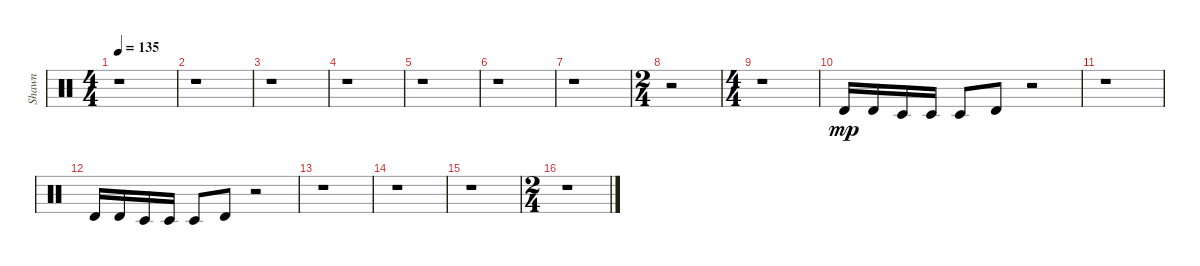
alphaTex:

\track ("Shawn" "Shawn") {instrument percussion}
\staff {score}
\articulation defaults
\ts (4 4)
\tempo 135
\clef neutral
\ks c
r.1{dy mf} |
r.1 |
r.1 |
r.1 |
r.1 |
r.1 |
r.1 |
\ts (2 4)
r.2 |
\ts (4 4)
r.1 |
"Timbale high (hit)".16{dy mp} "Timbale high (hit)".16 "Timbale low (hit)".16 "Timbale low (hit)".16 "Timbale low (hit)".8 "Timbale high (hit)".8 r.2 |
r.1 |
"Timbale high (hit)".16 "Timbale high (hit)".16 "Timbale low (hit)".16 "Timbale low (hit)".16 "Timbale low (hit)".8 "Timbale high (hit)".8 r.2 |
r.1 |
r.1 |
r.1 |
\ts (2 4)
r.1
